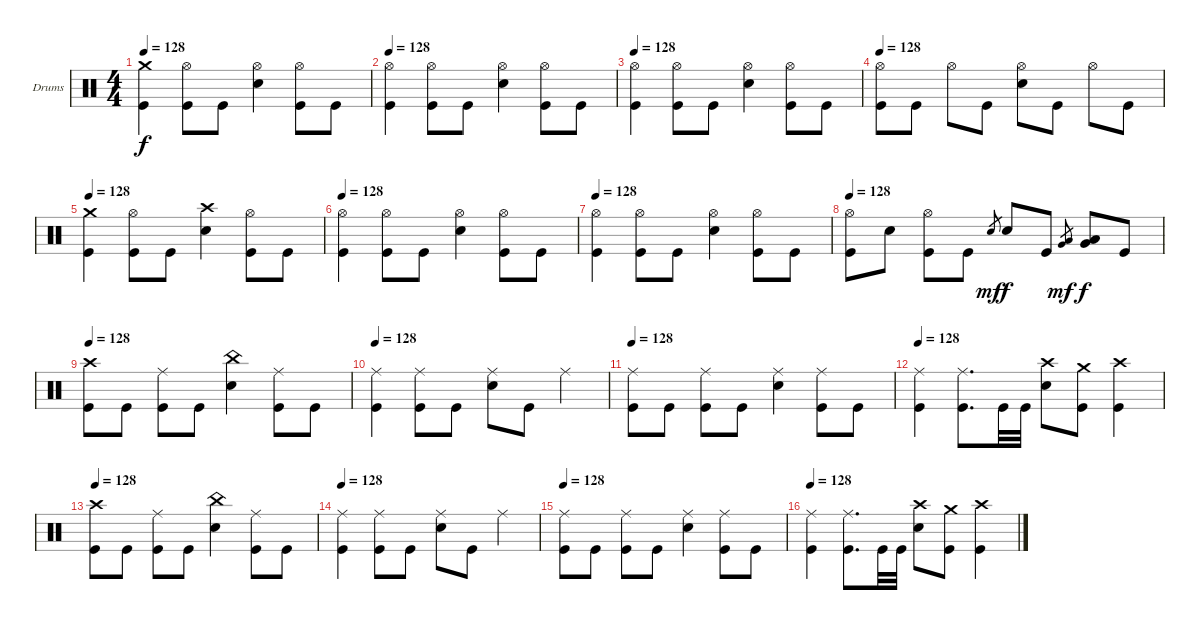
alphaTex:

\bracketExtendMode groupsimilarinstruments
\firstSystemTrackNameOrientation horizontal
\otherSystemsTrackNameOrientation horizontal
\track ("Drumkit" "Drums") {instrument percussion}
\staff {score}
\articulation defaults
\ts (4 4)
\tempo 128
\clef neutral
\ks c
("Crash medium (hit)" "Kick (hit)").4{dy f} ("Hi-Hat (open)" "Kick (hit)").8 "Kick (hit)".8 ("Hi-Hat (open)" "Snare (hit) 2").4 ("Hi-Hat (open)" "Kick (hit)").8 "Kick (hit)".8 |
\tempo 128
("Hi-Hat (open)" "Kick (hit)").4 ("Hi-Hat (open)" "Kick (hit)").8 "Kick (hit)".8 ("Hi-Hat (open)" "Snare (hit) 2").4 ("Hi-Hat (open)" "Kick (hit)").8 "Kick (hit)".8 |
\tempo 128
("Hi-Hat (open)" "Kick (hit)").4 ("Hi-Hat (open)" "Kick (hit)").8 "Kick (hit)".8 ("Hi-Hat (open)" "Snare (hit) 2").4 ("Hi-Hat (open)" "Kick (hit)").8 "Kick (hit)".8 |
\tempo 128
("Hi-Hat (open)" "Kick (hit)").8 "Kick (hit)".8 "Hi-Hat (open)".8 "Kick (hit)".8 ("Snare (hit) 2" "Hi-Hat (open)").8 "Kick (hit)".8 "Hi-Hat (open)".8 "Kick (hit)".8 |
\tempo 128
("Crash medium (hit)" "Kick (hit)").4 ("Hi-Hat (open)" "Kick (hit)").8 "Kick (hit)".8 ("Crash high (hit)" "Snare (hit) 2").4 ("Hi-Hat (open)" "Kick (hit)").8 "Kick (hit)".8 |
\tempo 128
("Hi-Hat (open)" "Kick (hit)").4 ("Hi-Hat (open)" "Kick (hit)").8 "Kick (hit)".8 ("Hi-Hat (open)" "Snare (hit) 2").4 ("Hi-Hat (open)" "Kick (hit)").8 "Kick (hit)".8 |
\tempo 128
("Hi-Hat (open)" "Kick (hit)").4 ("Hi-Hat (open)" "Kick (hit)").8 "Kick (hit)".8 ("Hi-Hat (open)" "Snare (hit) 2").4 ("Hi-Hat (open)" "Kick (hit)").8 "Kick (hit)".8 |
\tempo 128
("Hi-Hat (open)" "Kick (hit)").8 "Snare (hit) 2".8 ("Kick (hit)" "Hi-Hat (open)").8 "Kick (hit)".8 "Snare (hit) 2".8{gr dy mf} "Snare (hit) 2".8{dy f} "Kick (hit)".8 ("Very Low Tom (hit)" "Low Tom (hit)").8{gr dy mf} ("Very Low Tom (hit)" "Low Tom (hit)").8{dy f} "Kick (hit)".8 |
\tempo 128
("Crash high (hit)" "Kick (hit)").8 "Kick (hit)".8 ("Ride (middle)" "Kick (hit)").8 "Kick (hit)".8 ("China (hit)" "Snare (hit) 2").4 ("Ride (middle)" "Kick (hit)").8 "Kick (hit)".8 |
\tempo 128
("Ride (middle)" "Kick (hit)").4 ("Ride (middle)" "Kick (hit)").8 "Kick (hit)".8 ("Ride (middle)" "Snare (hit) 2").8 "Kick (hit)".8 "Ride (middle)".4 |
\tempo 128
("Ride (middle)" "Kick (hit)").8 "Kick (hit)".8 ("Ride (middle)" "Kick (hit)").8 "Kick (hit)".8 ("Ride (middle)" "Snare (hit) 2").4 ("Ride (middle)" "Kick (hit)").8 "Kick (hit)".8 |
\tempo 128
("Ride (middle)" "Kick (hit)").4 ("Ride (middle)" "Kick (hit)").8{d} "Kick (hit)".32 "Kick (hit)".32 ("Crash high (hit)" "Snare (hit) 2").8 ("Crash medium (hit)" "Kick (hit)").8 ("Crash high (hit)" "Kick (hit)").4 |
\tempo 128
("Crash high (hit)" "Kick (hit)").8 "Kick (hit)".8 ("Ride (middle)" "Kick (hit)").8 "Kick (hit)".8 ("China (hit)" "Snare (hit) 2").4 ("Ride (middle)" "Kick (hit)").8 "Kick (hit)".8 |
\tempo 128
("Ride (middle)" "Kick (hit)").4 ("Ride (middle)" "Kick (hit)").8 "Kick (hit)".8 ("Ride (middle)" "Snare (hit) 2").8 "Kick (hit)".8 "Ride (middle)".4 |
\tempo 128
("Ride (middle)" "Kick (hit)").8 "Kick (hit)".8 ("Ride (middle)" "Kick (hit)").8 "Kick (hit)".8 ("Ride (middle)" "Snare (hit) 2").4 ("Ride (middle)" "Kick (hit)").8 "Kick (hit)".8 |
\tempo 128
("Ride (middle)" "Kick (hit)").4 ("Ride (middle)" "Kick (hit)").8{d} "Kick (hit)".32 "Kick (hit)".32 ("Crash high (hit)" "Snare (hit) 2").8 ("Crash medium (hit)" "Kick (hit)").8 ("Crash high (hit)" "Kick (hit)").4
